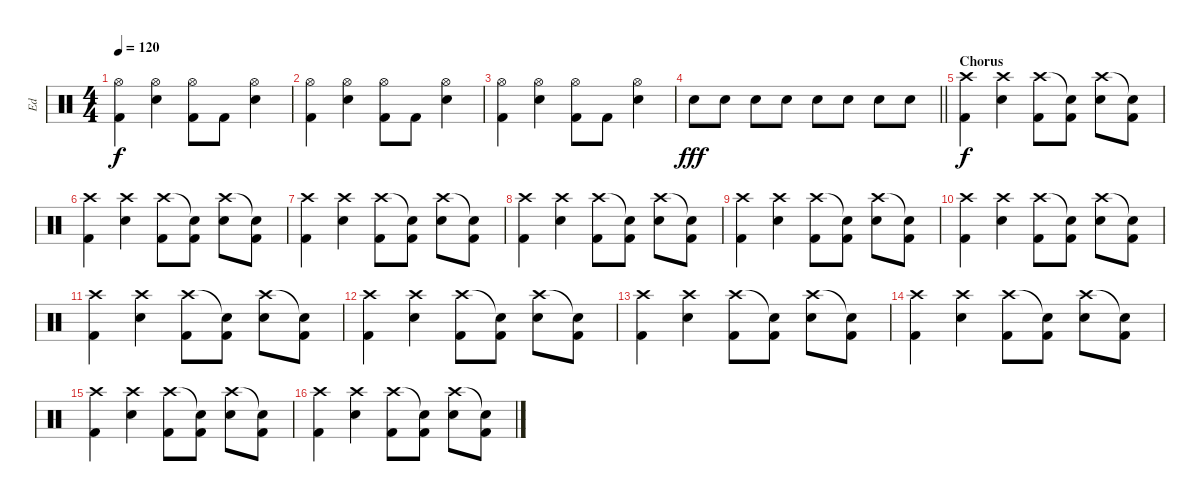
\track ("Ed" "Ed") {instrument percussion}
\staff {score}
\articulation defaults
\ts (4 4)
\tempo 120
\clef neutral
\ks c
("Hi-Hat (open)" "Kick (hit) 2").4{dy f} ("Hi-Hat (open)" "Snare (hit) 2").4 ("Hi-Hat (open)" "Kick (hit) 2").8 "Kick (hit) 2".8 ("Hi-Hat (open)" "Snare (hit) 2").4 |
("Hi-Hat (open)" "Kick (hit) 2").4 ("Hi-Hat (open)" "Snare (hit) 2").4 ("Hi-Hat (open)" "Kick (hit) 2").8 "Kick (hit) 2".8 ("Hi-Hat (open)" "Snare (hit) 2").4 |
("Hi-Hat (open)" "Kick (hit) 2").4 ("Hi-Hat (open)" "Snare (hit) 2").4 ("Hi-Hat (open)" "Kick (hit) 2").8 "Kick (hit) 2".8 ("Hi-Hat (open)" "Snare (hit) 2").4 |
\barLineRight lightlight "Electric Snare (hit)".8{dy fff} "Electric Snare (hit)".8 "Electric Snare (hit)".8 "Electric Snare (hit)".8 "Electric Snare (hit)".8 "Electric Snare (hit)".8 "Electric Snare (hit)".8 "Electric Snare (hit)".8
|
\section ("" "Chorus")
("Crash high (hit)" "Kick (hit) 2").4{dy f} ("Crash high (hit)" "Snare (hit) 2").4 ("Crash high (hit)" "Kick (hit) 2").8 ("Snare (hit)"{t} "Kick (hit) 2").8 ("Crash high (hit)" "Snare (hit) 2").8 ("Snare (hit)"{t} "Kick (hit) 2").8 |
("Crash high (hit)" "Kick (hit) 2").4 ("Crash high (hit)" "Snare (hit) 2").4 ("Crash high (hit)" "Kick (hit) 2").8 ("Snare (hit)"{t} "Kick (hit) 2").8 ("Crash high (hit)" "Snare (hit) 2").8 ("Snare (hit)"{t} "Kick (hit) 2").8 |
("Crash high (hit)" "Kick (hit) 2").4 ("Crash high (hit)" "Snare (hit) 2").4 ("Crash high (hit)" "Kick (hit) 2").8 ("Snare (hit)"{t} "Kick (hit) 2").8 ("Crash high (hit)" "Snare (hit) 2").8 ("Snare (hit)"{t} "Kick (hit) 2").8 |
("Crash high (hit)" "Kick (hit) 2").4 ("Crash high (hit)" "Snare (hit) 2").4 ("Crash high (hit)" "Kick (hit) 2").8 ("Snare (hit)"{t} "Kick (hit) 2").8 ("Crash high (hit)" "Snare (hit) 2").8 ("Snare (hit)"{t} "Kick (hit) 2").8 |
("Crash high (hit)" "Kick (hit) 2").4 ("Crash high (hit)" "Snare (hit) 2").4 ("Crash high (hit)" "Kick (hit) 2").8 ("Snare (hit)"{t} "Kick (hit) 2").8 ("Crash high (hit)" "Snare (hit) 2").8 ("Snare (hit)"{t} "Kick (hit) 2").8 |
("Crash high (hit)" "Kick (hit) 2").4 ("Crash high (hit)" "Snare (hit) 2").4 ("Crash high (hit)" "Kick (hit) 2").8 ("Snare (hit)"{t} "Kick (hit) 2").8 ("Crash high (hit)" "Snare (hit) 2").8 ("Snare (hit)"{t} "Kick (hit) 2").8 |
("Crash high (hit)" "Kick (hit) 2").4 ("Crash high (hit)" "Snare (hit) 2").4 ("Crash high (hit)" "Kick (hit) 2").8 ("Snare (hit)"{t} "Kick (hit) 2").8 ("Crash high (hit)" "Snare (hit) 2").8 ("Snare (hit)"{t} "Kick (hit) 2").8 |
("Crash high (hit)" "Kick (hit) 2").4 ("Crash high (hit)" "Snare (hit) 2").4 ("Crash high (hit)" "Kick (hit) 2").8 ("Snare (hit)"{t} "Kick (hit) 2").8 ("Crash high (hit)" "Snare (hit) 2").8 ("Snare (hit)"{t} "Kick (hit) 2").8 |
("Crash high (hit)" "Kick (hit) 2").4 ("Crash high (hit)" "Snare (hit) 2").4 ("Crash high (hit)" "Kick (hit) 2").8 ("Snare (hit)"{t} "Kick (hit) 2").8 ("Crash high (hit)" "Snare (hit) 2").8 ("Snare (hit)"{t} "Kick (hit) 2").8 |
("Crash high (hit)" "Kick (hit) 2").4 ("Crash high (hit)" "Snare (hit) 2").4 ("Crash high (hit)" "Kick (hit) 2").8 ("Snare (hit)"{t} "Kick (hit) 2").8 ("Crash high (hit)" "Snare (hit) 2").8 ("Snare (hit)"{t} "Kick (hit) 2").8 |
("Crash high (hit)" "Kick (hit) 2").4 ("Crash high (hit)" "Snare (hit) 2").4 ("Crash high (hit)" "Kick (hit) 2").8 ("Snare (hit)"{t} "Kick (hit) 2").8 ("Crash high (hit)" "Snare (hit) 2").8 ("Snare (hit)"{t} "Kick (hit) 2").8 |
("Crash high (hit)" "Kick (hit) 2").4 ("Crash high (hit)" "Snare (hit) 2").4 ("Crash high (hit)" "Kick (hit) 2").8 ("Snare (hit)"{t} "Kick (hit) 2").8 ("Crash high (hit)" "Snare (hit) 2").8 ("Snare (hit)"{t} "Kick (hit) 2").8
